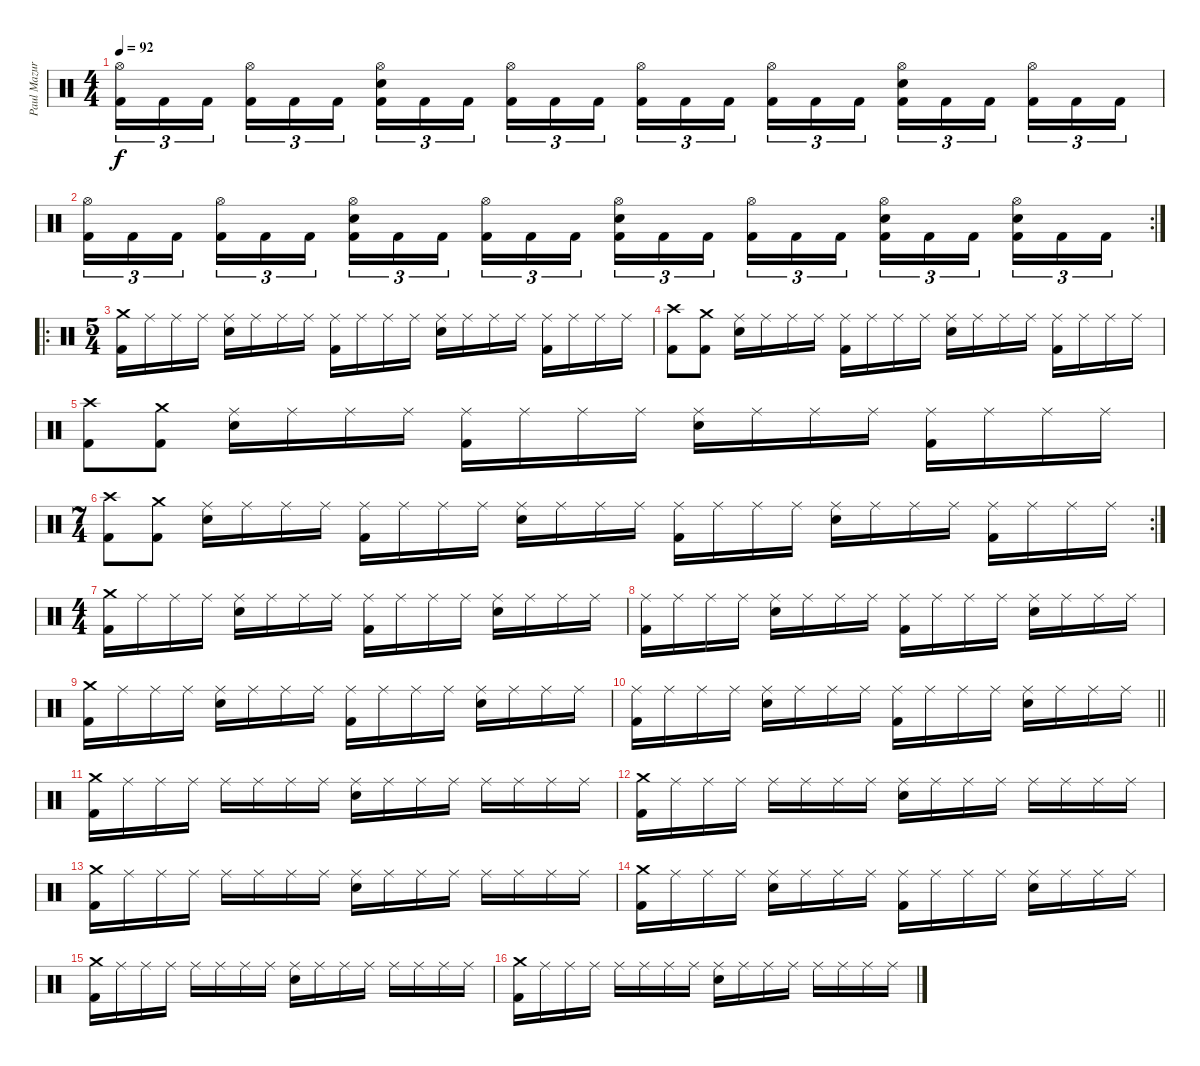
\track ("Paul Mazurkiewicz" "Paul Mazur") {instrument percussion}
\staff {score}
\articulation defaults
\ts (4 4)
\tempo 92
\clef neutral
\ks c
("Hi-Hat (open)" "Kick (hit) 2").16{tu (3 2) dy f} "Kick (hit) 2".16{tu (3 2)} "Kick (hit) 2".16{tu (3 2) beam splitsecondary} ("Hi-Hat (open)" "Kick (hit) 2").16{tu (3 2)} "Kick (hit) 2".16{tu (3 2)} "Kick (hit) 2".16{tu (3 2)} ("Hi-Hat (open)" "Electric Snare (hit)" "Kick (hit) 2").16{tu (3 2)} "Kick (hit) 2".16{tu (3 2)} "Kick (hit) 2".16{tu (3 2) beam splitsecondary} ("Hi-Hat (open)" "Kick (hit) 2").16{tu (3 2)} "Kick (hit) 2".16{tu (3 2)} "Kick (hit) 2".16{tu (3 2)} ("Hi-Hat (open)" "Kick (hit) 2").16{tu (3 2)} "Kick (hit) 2".16{tu (3 2)} "Kick (hit) 2".16{tu (3 2) beam splitsecondary} ("Hi-Hat (open)" "Kick (hit) 2").16{tu (3 2)} "Kick (hit) 2".16{tu (3 2)} "Kick (hit) 2".16{tu (3 2)} ("Hi-Hat (open)" "Electric Snare (hit)" "Kick (hit) 2").16{tu (3 2)} "Kick (hit) 2".16{tu (3 2)} "Kick (hit) 2".16{tu (3 2) beam splitsecondary} ("Hi-Hat (open)" "Kick (hit) 2").16{tu (3 2)} "Kick (hit) 2".16{tu (3 2)} "Kick (hit) 2".16{tu (3 2)} |
\rc 2
("Hi-Hat (open)" "Kick (hit) 2").16{tu (3 2)} "Kick (hit) 2".16{tu (3 2)} "Kick (hit) 2".16{tu (3 2) beam splitsecondary} ("Hi-Hat (open)" "Kick (hit) 2").16{tu (3 2)} "Kick (hit) 2".16{tu (3 2)} "Kick (hit) 2".16{tu (3 2)} ("Hi-Hat (open)" "Electric Snare (hit)" "Kick (hit) 2").16{tu (3 2)} "Kick (hit) 2".16{tu (3 2)} "Kick (hit) 2".16{tu (3 2) beam splitsecondary} ("Hi-Hat (open)" "Kick (hit) 2").16{tu (3 2)} "Kick (hit) 2".16{tu (3 2)} "Kick (hit) 2".16{tu (3 2)} ("Hi-Hat (open)" "Electric Snare (hit)" "Kick (hit) 2").16{tu (3 2)} "Kick (hit) 2".16{tu (3 2)} "Kick (hit) 2".16{tu (3 2) beam splitsecondary} ("Hi-Hat (open)" "Kick (hit) 2").16{tu (3 2)} "Kick (hit) 2".16{tu (3 2)} "Kick (hit) 2".16{tu (3 2)} ("Hi-Hat (open)" "Electric Snare (hit)" "Kick (hit) 2").16{tu (3 2)} "Kick (hit) 2".16{tu (3 2)} "Kick (hit) 2".16{tu (3 2) beam splitsecondary} ("Hi-Hat (open)" "Electric Snare (hit)" "Kick (hit) 2").16{tu (3 2)} "Kick (hit) 2".16{tu (3 2)} "Kick (hit) 2".16{tu (3 2)} |
\ro
\ts (5 4)
("Crash medium (hit)" "Kick (hit) 2").16 "Ride (middle)".16 "Ride (middle)".16 "Ride (middle)".16 ("Ride (middle)" "Electric Snare (hit)").16 "Ride (middle)".16 "Ride (middle)".16 "Ride (middle)".16 ("Ride (middle)" "Kick (hit) 2").16 "Ride (middle)".16 "Ride (middle)".16 "Ride (middle)".16 ("Ride (middle)" "Electric Snare (hit)").16 "Ride (middle)".16 "Ride (middle)".16 "Ride (middle)".16 ("Ride (middle)" "Kick (hit) 2").16 "Ride (middle)".16 "Ride (middle)".16 "Ride (middle)".16 |
("Crash high (hit)" "Kick (hit) 2").8 ("Crash medium (hit)" "Kick (hit) 2").8 ("Ride (middle)" "Electric Snare (hit)").16 "Ride (middle)".16 "Ride (middle)".16 "Ride (middle)".16 ("Ride (middle)" "Kick (hit) 2").16 "Ride (middle)".16 "Ride (middle)".16 "Ride (middle)".16 ("Ride (middle)" "Electric Snare (hit)").16 "Ride (middle)".16 "Ride (middle)".16 "Ride (middle)".16 ("Ride (middle)" "Kick (hit) 2").16 "Ride (middle)".16 "Ride (middle)".16 "Ride (middle)".16 |
("Crash high (hit)" "Kick (hit) 2").8 ("Crash medium (hit)" "Kick (hit) 2").8 ("Ride (middle)" "Electric Snare (hit)").16 "Ride (middle)".16 "Ride (middle)".16 "Ride (middle)".16 ("Ride (middle)" "Kick (hit) 2").16 "Ride (middle)".16 "Ride (middle)".16 "Ride (middle)".16 ("Ride (middle)" "Electric Snare (hit)").16 "Ride (middle)".16 "Ride (middle)".16 "Ride (middle)".16 ("Ride (middle)" "Kick (hit) 2").16 "Ride (middle)".16 "Ride (middle)".16 "Ride (middle)".16 |
\rc 2
\ts (7 4)
("Crash high (hit)" "Kick (hit) 2").8 ("Crash medium (hit)" "Kick (hit) 2").8 ("Ride (middle)" "Electric Snare (hit)").16 "Ride (middle)".16 "Ride (middle)".16 "Ride (middle)".16 ("Ride (middle)" "Kick (hit) 2").16 "Ride (middle)".16 "Ride (middle)".16 "Ride (middle)".16 ("Ride (middle)" "Electric Snare (hit)").16 "Ride (middle)".16 "Ride (middle)".16 "Ride (middle)".16 ("Ride (middle)" "Kick (hit) 2").16 "Ride (middle)".16 "Ride (middle)".16 "Ride (middle)".16 ("Ride (middle)" "Electric Snare (hit)").16 "Ride (middle)".16 "Ride (middle)".16 "Ride (middle)".16 ("Ride (middle)" "Kick (hit) 2").16 "Ride (middle)".16 "Ride (middle)".16 "Ride (middle)".16 |
\ts (4 4)
("Crash medium (hit)" "Kick (hit) 2").16 "Ride (middle)".16 "Ride (middle)".16 "Ride (middle)".16 ("Ride (middle)" "Electric Snare (hit)").16 "Ride (middle)".16 "Ride (middle)".16 "Ride (middle)".16 ("Ride (middle)" "Kick (hit) 2").16 "Ride (middle)".16 "Ride (middle)".16 "Ride (middle)".16 ("Ride (middle)" "Electric Snare (hit)").16 "Ride (middle)".16 "Ride (middle)".16 "Ride (middle)".16 |
("Ride (middle)" "Kick (hit) 2").16 "Ride (middle)".16 "Ride (middle)".16 "Ride (middle)".16 ("Ride (middle)" "Electric Snare (hit)").16 "Ride (middle)".16 "Ride (middle)".16 "Ride (middle)".16 ("Ride (middle)" "Kick (hit) 2").16 "Ride (middle)".16 "Ride (middle)".16 "Ride (middle)".16 ("Ride (middle)" "Electric Snare (hit)").16 "Ride (middle)".16 "Ride (middle)".16 "Ride (middle)".16 |
("Crash medium (hit)" "Kick (hit) 2").16 "Ride (middle)".16 "Ride (middle)".16 "Ride (middle)".16 ("Ride (middle)" "Electric Snare (hit)").16 "Ride (middle)".16 "Ride (middle)".16 "Ride (middle)".16 ("Ride (middle)" "Kick (hit) 2").16 "Ride (middle)".16 "Ride (middle)".16 "Ride (middle)".16 ("Ride (middle)" "Electric Snare (hit)").16 "Ride (middle)".16 "Ride (middle)".16 "Ride (middle)".16 |
\barLineRight lightlight
("Ride (middle)" "Kick (hit) 2").16 "Ride (middle)".16 "Ride (middle)".16 "Ride (middle)".16 ("Ride (middle)" "Electric Snare (hit)").16 "Ride (middle)".16 "Ride (middle)".16 "Ride (middle)".16 ("Ride (middle)" "Kick (hit) 2").16 "Ride (middle)".16 "Ride (middle)".16 "Ride (middle)".16 ("Ride (middle)" "Electric Snare (hit)").16 "Ride (middle)".16 "Ride (middle)".16 "Ride (middle)".16 |
("Crash medium (hit)" "Kick (hit) 2").16 "Ride (middle)".16 "Ride (middle)".16 "Ride (middle)".16 "Ride (middle)".16 "Ride (middle)".16 "Ride (middle)".16 "Ride (middle)".16 ("Ride (middle)" "Electric Snare (hit)").16 "Ride (middle)".16 "Ride (middle)".16 "Ride (middle)".16 "Ride (middle)".16 "Ride (middle)".16 "Ride (middle)".16 "Ride (middle)".16 |
("Crash medium (hit)" "Kick (hit) 2").16 "Ride (middle)".16 "Ride (middle)".16 "Ride (middle)".16 "Ride (middle)".16 "Ride (middle)".16 "Ride (middle)".16 "Ride (middle)".16 ("Ride (middle)" "Electric Snare (hit)").16 "Ride (middle)".16 "Ride (middle)".16 "Ride (middle)".16 "Ride (middle)".16 "Ride (middle)".16 "Ride (middle)".16 "Ride (middle)".16 |
("Crash medium (hit)" "Kick (hit) 2").16 "Ride (middle)".16 "Ride (middle)".16 "Ride (middle)".16 "Ride (middle)".16 "Ride (middle)".16 "Ride (middle)".16 "Ride (middle)".16 ("Ride (middle)" "Electric Snare (hit)").16 "Ride (middle)".16 "Ride (middle)".16 "Ride (middle)".16 "Ride (middle)".16 "Ride (middle)".16 "Ride (middle)".16 "Ride (middle)".16 |
("Crash medium (hit)" "Kick (hit) 2").16 "Ride (middle)".16 "Ride (middle)".16 "Ride (middle)".16 ("Ride (middle)" "Electric Snare (hit)").16 "Ride (middle)".16 "Ride (middle)".16 "Ride (middle)".16 ("Ride (middle)" "Kick (hit) 2").16 "Ride (middle)".16 "Ride (middle)".16 "Ride (middle)".16 ("Ride (middle)" "Electric Snare (hit)").16 "Ride (middle)".16 "Ride (middle)".16 "Ride (middle)".16 |
("Crash medium (hit)" "Kick (hit) 2").16 "Ride (middle)".16 "Ride (middle)".16 "Ride (middle)".16 "Ride (middle)".16 "Ride (middle)".16 "Ride (middle)".16 "Ride (middle)".16 ("Ride (middle)" "Electric Snare (hit)").16 "Ride (middle)".16 "Ride (middle)".16 "Ride (middle)".16 "Ride (middle)".16 "Ride (middle)".16 "Ride (middle)".16 "Ride (middle)".16 |
("Crash medium (hit)" "Kick (hit) 2").16 "Ride (middle)".16 "Ride (middle)".16 "Ride (middle)".16 "Ride (middle)".16 "Ride (middle)".16 "Ride (middle)".16 "Ride (middle)".16 ("Ride (middle)" "Electric Snare (hit)").16 "Ride (middle)".16 "Ride (middle)".16 "Ride (middle)".16 "Ride (middle)".16 "Ride (middle)".16 "Ride (middle)".16 "Ride (middle)".16
